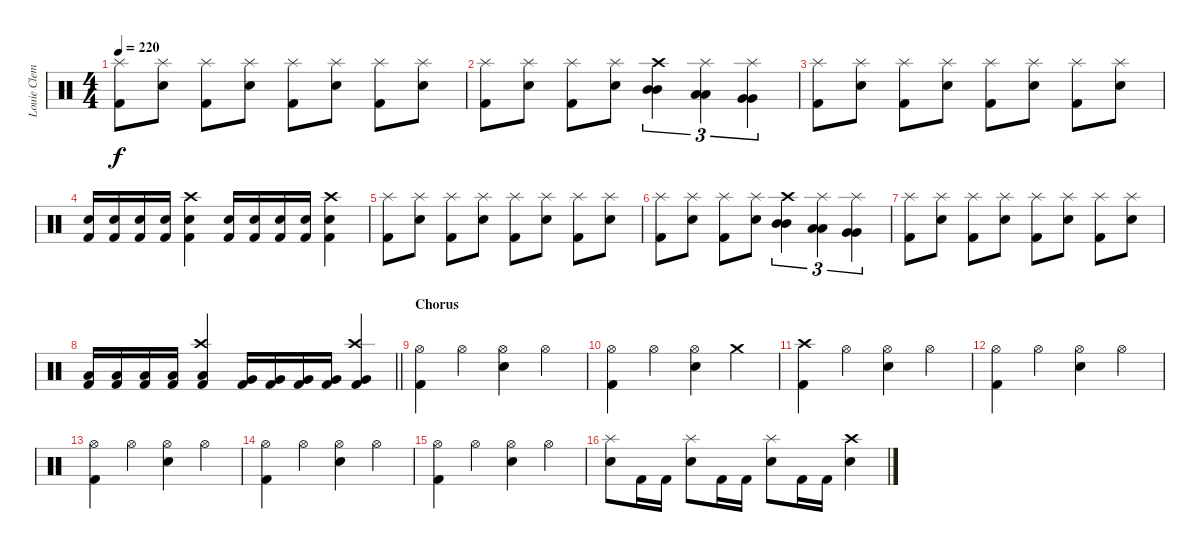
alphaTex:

\track ("Louie Clemente (Drums)" "Louie Clem") {instrument percussion}
\staff {score}
\articulation defaults
\ts (4 4)
\tempo 220
\clef neutral
\ks c
("Splash (hit)" "Kick (hit) 2").8{dy f} ("Splash (hit)" "Electric Snare (hit)").8 ("Splash (hit)" "Kick (hit) 2").8 ("Splash (hit)" "Electric Snare (hit)").8 ("Splash (hit)" "Kick (hit) 2").8 ("Splash (hit)" "Electric Snare (hit)").8 ("Splash (hit)" "Kick (hit) 2").8 ("Splash (hit)" "Electric Snare (hit)").8 |
("Splash (hit)" "Kick (hit) 2").8 ("Splash (hit)" "Electric Snare (hit)").8 ("Splash (hit)" "Kick (hit) 2").8 ("Splash (hit)" "Electric Snare (hit)").8 ("Crash high (hit)" "Mid Tom (hit)" "Mid Tom (hit)").4{tu (3 2)} ("Splash (hit)" "Low Tom (hit)" "Low Tom (hit)").4{tu (3 2)} ("Splash (hit)" "Very Low Tom (hit)" "Very Low Tom (hit)").4{tu (3 2)} |
("Splash (hit)" "Kick (hit) 2").8 ("Splash (hit)" "Electric Snare (hit)").8 ("Splash (hit)" "Kick (hit) 2").8 ("Splash (hit)" "Electric Snare (hit)").8 ("Splash (hit)" "Kick (hit) 2").8 ("Splash (hit)" "Electric Snare (hit)").8 ("Splash (hit)" "Kick (hit) 2").8 ("Splash (hit)" "Electric Snare (hit)").8 |
("Electric Snare (hit)" "Kick (hit) 2").16 ("Electric Snare (hit)" "Kick (hit) 2").16 ("Electric Snare (hit)" "Kick (hit) 2").16 ("Electric Snare (hit)" "Kick (hit) 2").16 ("Crash high (hit)" "Electric Snare (hit)" "Kick (hit) 2").4 ("Electric Snare (hit)" "Kick (hit) 2").16 ("Electric Snare (hit)" "Kick (hit) 2").16 ("Electric Snare (hit)" "Kick (hit) 2").16 ("Electric Snare (hit)" "Kick (hit) 2").16 ("Crash high (hit)" "Electric Snare (hit)" "Kick (hit) 2").4 |
("Splash (hit)" "Kick (hit) 2").8 ("Splash (hit)" "Electric Snare (hit)").8 ("Splash (hit)" "Kick (hit) 2").8 ("Splash (hit)" "Electric Snare (hit)").8 ("Splash (hit)" "Kick (hit) 2").8 ("Splash (hit)" "Electric Snare (hit)").8 ("Splash (hit)" "Kick (hit) 2").8 ("Splash (hit)" "Electric Snare (hit)").8 |
("Splash (hit)" "Kick (hit) 2").8 ("Splash (hit)" "Electric Snare (hit)").8 ("Splash (hit)" "Kick (hit) 2").8 ("Splash (hit)" "Electric Snare (hit)").8 ("Crash high (hit)" "Mid Tom (hit)" "Mid Tom (hit)").4{tu (3 2)} ("Splash (hit)" "Low Tom (hit)" "Low Tom (hit)").4{tu (3 2)} ("Splash (hit)" "Very Low Tom (hit)" "Very Low Tom (hit)").4{tu (3 2)} |
("Splash (hit)" "Kick (hit) 2").8 ("Splash (hit)" "Electric Snare (hit)").8 ("Splash (hit)" "Kick (hit) 2").8 ("Splash (hit)" "Electric Snare (hit)").8 ("Splash (hit)" "Kick (hit) 2").8 ("Splash (hit)" "Electric Snare (hit)").8 ("Splash (hit)" "Kick (hit) 2").8 ("Splash (hit)" "Electric Snare (hit)").8 |
\barLineRight lightlight
("Low Tom (hit)" "Kick (hit) 2").16 ("Low Tom (hit)" "Kick (hit) 2").16 ("Low Tom (hit)" "Kick (hit) 2").16 ("Low Tom (hit)" "Kick (hit) 2").16 ("Crash high (hit)" "Low Tom (hit)" "Kick (hit) 2").4 ("Very Low Tom (hit)" "Kick (hit) 2").16 ("Very Low Tom (hit)" "Kick (hit) 2").16 ("Very Low Tom (hit)" "Kick (hit) 2").16 ("Very Low Tom (hit)" "Kick (hit) 2").16 ("Crash high (hit)" "Very Low Tom (hit)" "Kick (hit) 2").4 |
\section ("" "Chorus")
("Hi-Hat (open)" "Kick (hit) 2").4 "Hi-Hat (open)".4 ("Hi-Hat (open)" "Electric Snare (hit)").4 "Hi-Hat (open)".4 |
("Hi-Hat (open)" "Kick (hit) 2").4 "Hi-Hat (open)".4 ("Hi-Hat (open)" "Electric Snare (hit)").4 "Crash medium (hit)".4 |
("Crash high (hit)" "Kick (hit) 2").4 "Hi-Hat (open)".4 ("Hi-Hat (open)" "Electric Snare (hit)").4 "Hi-Hat (open)".4 |
("Hi-Hat (open)" "Kick (hit) 2").4 "Hi-Hat (open)".4 ("Hi-Hat (open)" "Electric Snare (hit)").4 "Hi-Hat (open)".4 |
("Hi-Hat (open)" "Kick (hit) 2").4 "Hi-Hat (open)".4 ("Hi-Hat (open)" "Electric Snare (hit)").4 "Hi-Hat (open)".4 |
("Hi-Hat (open)" "Kick (hit) 2").4 "Hi-Hat (open)".4 ("Hi-Hat (open)" "Electric Snare (hit)").4 "Hi-Hat (open)".4 |
("Hi-Hat (open)" "Kick (hit) 2").4 "Hi-Hat (open)".4 ("Hi-Hat (open)" "Electric Snare (hit)").4 "Hi-Hat (open)".4 |
("Splash (hit)" "Electric Snare (hit)").8 "Kick (hit) 2".16 "Kick (hit) 2".16 ("Splash (hit)" "Electric Snare (hit)").8 "Kick (hit) 2".16 "Kick (hit) 2".16 ("Splash (hit)" "Electric Snare (hit)").8 "Kick (hit) 2".16 "Kick (hit) 2".16 ("Crash high (hit)" "Electric Snare (hit)").4
